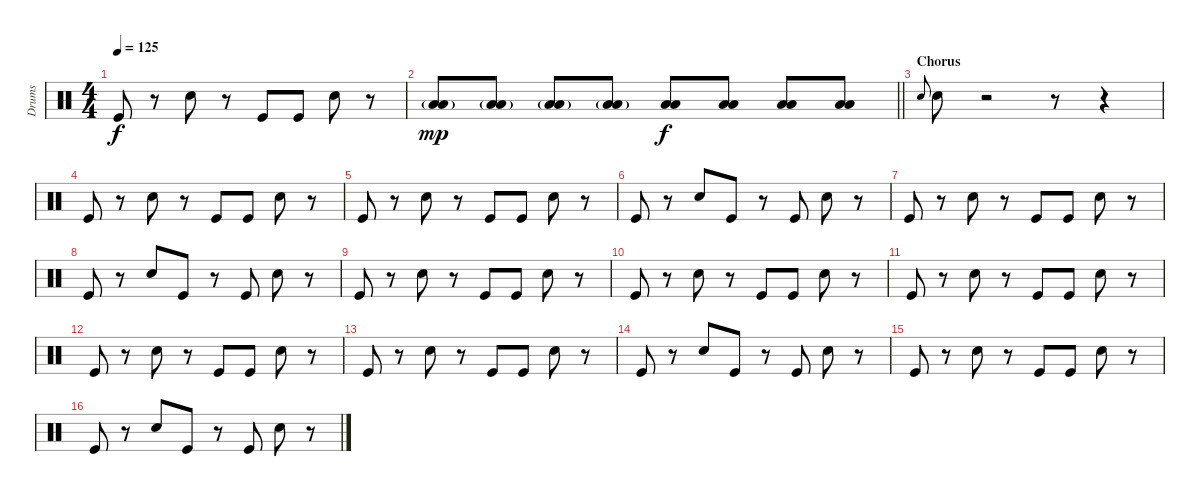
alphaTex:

\track ("Drums" "Drums") {instrument percussion}
\staff {score}
\articulation defaults
\ts (4 4)
\tempo 125
\clef neutral
\ks c "Kick (hit)".8{dy f}
r.8 "Snare (hit) 2".8 r.8 "Kick (hit)".8 "Kick (hit)".8 "Snare (hit) 2".8 r.8 |
\barLineRight lightlight
("Low Floor Tom (hit)"{g} "Low Tom (hit)"{g}).8{dy mp} ("Low Floor Tom (hit)"{g} "Low Tom (hit)"{g}).8 ("Low Floor Tom (hit)"{g} "Low Tom (hit)"{g}).8 ("Low Floor Tom (hit)"{g} "Low Tom (hit)"{g}).8 ("Low Floor Tom (hit)" "Low Tom (hit)").8{dy f} ("Low Floor Tom (hit)" "Low Tom (hit)").8 ("Low Floor Tom (hit)" "Low Tom (hit)").8 ("Low Floor Tom (hit)" "Low Tom (hit)").8 |
\section ("" "Chorus")
"Snare (hit) 2".8{gr onbeat} "Snare (hit) 2".8 r.2 r.8 r.4 |
"Kick (hit)".8 r.8 "Snare (hit) 2".8 r.8 "Kick (hit)".8 "Kick (hit)".8 "Snare (hit) 2".8 r.8 |
"Kick (hit)".8 r.8 "Snare (hit) 2".8 r.8 "Kick (hit)".8 "Kick (hit)".8 "Snare (hit) 2".8 r.8 |
"Kick (hit)".8 r.8 "Snare (hit) 2".8 "Kick (hit)".8 r.8 "Kick (hit)".8 "Snare (hit) 2".8 r.8 |
"Kick (hit)".8 r.8 "Snare (hit) 2".8 r.8 "Kick (hit)".8 "Kick (hit)".8 "Snare (hit) 2".8 r.8 |
"Kick (hit)".8 r.8 "Snare (hit) 2".8 "Kick (hit)".8 r.8 "Kick (hit)".8 "Snare (hit) 2".8 r.8 |
"Kick (hit)".8 r.8 "Snare (hit) 2".8 r.8 "Kick (hit)".8 "Kick (hit)".8 "Snare (hit) 2".8 r.8 |
"Kick (hit)".8 r.8 "Snare (hit) 2".8 r.8 "Kick (hit)".8 "Kick (hit)".8 "Snare (hit) 2".8 r.8 |
"Kick (hit)".8 r.8 "Snare (hit) 2".8 r.8 "Kick (hit)".8 "Kick (hit)".8 "Snare (hit) 2".8 r.8 |
"Kick (hit)".8 r.8 "Snare (hit) 2".8 r.8 "Kick (hit)".8 "Kick (hit)".8 "Snare (hit) 2".8 r.8 |
"Kick (hit)".8 r.8 "Snare (hit) 2".8 r.8 "Kick (hit)".8 "Kick (hit)".8 "Snare (hit) 2".8 r.8 |
"Kick (hit)".8 r.8 "Snare (hit) 2".8 "Kick (hit)".8 r.8 "Kick (hit)".8 "Snare (hit) 2".8 r.8 |
"Kick (hit)".8 r.8 "Snare (hit) 2".8 r.8 "Kick (hit)".8 "Kick (hit)".8 "Snare (hit) 2".8 r.8 |
"Kick (hit)".8 r.8 "Snare (hit) 2".8 "Kick (hit)".8 r.8 "Kick (hit)".8 "Snare (hit) 2".8 r.8
